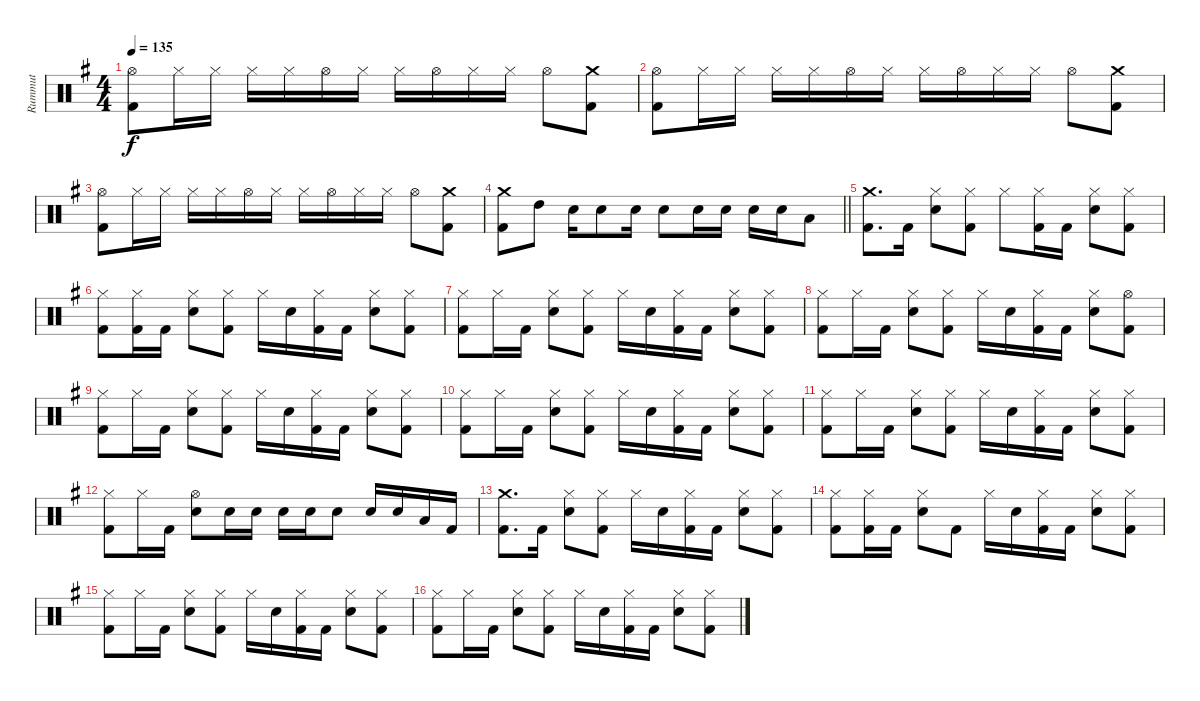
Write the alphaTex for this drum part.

\track ("Rummut" "Rummut") {instrument percussion}
\staff {score}
\articulation defaults
\ts (4 4)
\tempo 135
\clef neutral
\ks g
("Hi-Hat (open)" "Kick (hit) 2").8{dy f} "Hi-Hat (closed)".16 "Hi-Hat (closed)".16 "Hi-Hat (closed)".16 "Hi-Hat (closed)".16 "Hi-Hat (open)".16 "Hi-Hat (closed)".16 "Hi-Hat (closed)".16 "Hi-Hat (open)".16 "Hi-Hat (closed)".16 "Hi-Hat (closed)".16 "Hi-Hat (open)".8 ("Crash medium (hit)" "Kick (hit) 2").8 |
("Hi-Hat (open)" "Kick (hit) 2").8 "Hi-Hat (closed)".16 "Hi-Hat (closed)".16 "Hi-Hat (closed)".16 "Hi-Hat (closed)".16 "Hi-Hat (open)".16 "Hi-Hat (closed)".16 "Hi-Hat (closed)".16 "Hi-Hat (open)".16 "Hi-Hat (closed)".16 "Hi-Hat (closed)".16 "Hi-Hat (open)".8 ("Crash medium (hit)" "Kick (hit) 2").8 |
("Hi-Hat (open)" "Kick (hit) 2").8 "Hi-Hat (closed)".16 "Hi-Hat (closed)".16 "Hi-Hat (closed)".16 "Hi-Hat (closed)".16 "Hi-Hat (open)".16 "Hi-Hat (closed)".16 "Hi-Hat (closed)".16 "Hi-Hat (open)".16 "Hi-Hat (closed)".16 "Hi-Hat (closed)".16 "Hi-Hat (open)".8 ("Crash medium (hit)" "Kick (hit) 2").8 |
\barLineRight lightlight
("Crash medium (hit)" "Kick (hit) 2").8 "High Tom (hit)".8 "Snare (hit) 2".16 "Snare (hit) 2".8 "Snare (hit) 2".16 "Snare (hit) 2".8 "Snare (hit) 2".16 "Snare (hit) 2".16 "Snare (hit) 2".16 "Snare (hit) 2".16 "Low Tom (hit)".8 |
("Crash medium (hit)" "Kick (hit) 2").8{d} "Kick (hit) 2".16 ("Hi-Hat (closed)" "Snare (hit) 2").8 ("Hi-Hat (closed)" "Kick (hit) 2").8 "Hi-Hat (closed)".8 ("Hi-Hat (closed)" "Kick (hit) 2").16 "Kick (hit) 2".16 ("Hi-Hat (closed)" "Snare (hit) 2").8 ("Hi-Hat (closed)" "Kick (hit) 2").8 |
("Hi-Hat (closed)" "Kick (hit) 2").8 ("Hi-Hat (closed)" "Kick (hit) 2").16 "Kick (hit) 2".16 ("Hi-Hat (closed)" "Snare (hit) 2").8 ("Hi-Hat (closed)" "Kick (hit) 2").8 "Hi-Hat (closed)".16 "Snare (hit) 2".16 ("Hi-Hat (closed)" "Kick (hit) 2").16 "Kick (hit) 2".16 ("Hi-Hat (closed)" "Snare (hit) 2").8 ("Hi-Hat (closed)" "Kick (hit) 2").8 |
("Hi-Hat (closed)" "Kick (hit) 2").8 "Hi-Hat (closed)".16 "Kick (hit) 2".16 ("Hi-Hat (closed)" "Snare (hit) 2").8 ("Hi-Hat (closed)" "Kick (hit) 2").8 "Hi-Hat (closed)".16 "Snare (hit) 2".16 ("Hi-Hat (closed)" "Kick (hit) 2").16 "Kick (hit) 2".16 ("Hi-Hat (closed)" "Snare (hit) 2").8 ("Hi-Hat (closed)" "Kick (hit) 2").8 |
("Hi-Hat (closed)" "Kick (hit) 2").8 "Hi-Hat (closed)".16 "Kick (hit) 2".16 ("Hi-Hat (closed)" "Snare (hit) 2").8 ("Hi-Hat (closed)" "Kick (hit) 2").8 "Hi-Hat (closed)".16 "Snare (hit) 2".16 ("Hi-Hat (closed)" "Kick (hit) 2").16 "Kick (hit) 2".16 ("Hi-Hat (closed)" "Snare (hit) 2").8 ("Hi-Hat (open)" "Kick (hit) 2").8 |
("Hi-Hat (closed)" "Kick (hit) 2").8 "Hi-Hat (closed)".16 "Kick (hit) 2".16 ("Hi-Hat (closed)" "Snare (hit) 2").8 ("Hi-Hat (closed)" "Kick (hit) 2").8 "Hi-Hat (closed)".16 "Snare (hit) 2".16 ("Hi-Hat (closed)" "Kick (hit) 2").16 "Kick (hit) 2".16 ("Hi-Hat (closed)" "Snare (hit) 2").8 ("Hi-Hat (closed)" "Kick (hit) 2").8 |
("Hi-Hat (closed)" "Kick (hit) 2").8 "Hi-Hat (closed)".16 "Kick (hit) 2".16 ("Hi-Hat (closed)" "Snare (hit) 2").8 ("Hi-Hat (closed)" "Kick (hit) 2").8 "Hi-Hat (closed)".16 "Snare (hit) 2".16 ("Hi-Hat (closed)" "Kick (hit) 2").16 "Kick (hit) 2".16 ("Hi-Hat (closed)" "Snare (hit) 2").8 ("Hi-Hat (closed)" "Kick (hit) 2").8 |
("Hi-Hat (closed)" "Kick (hit) 2").8 "Hi-Hat (closed)".16 "Kick (hit) 2".16 ("Hi-Hat (closed)" "Snare (hit) 2").8 ("Hi-Hat (closed)" "Kick (hit) 2").8 "Hi-Hat (closed)".16 "Snare (hit) 2".16 ("Hi-Hat (closed)" "Kick (hit) 2").16 "Kick (hit) 2".16 ("Hi-Hat (closed)" "Snare (hit) 2").8 ("Hi-Hat (closed)" "Kick (hit) 2").8 |
("Hi-Hat (closed)" "Kick (hit) 2").8 "Hi-Hat (closed)".16 "Kick (hit) 2".16 ("Hi-Hat (open)" "Snare (hit) 2").8 "Snare (hit) 2".16 "Snare (hit) 2".16 "Snare (hit) 2".16 "Snare (hit) 2".16 "Snare (hit) 2".8 "Snare (hit) 2".16 "Snare (hit) 2".16 "Low Tom (hit)".16 "Kick (hit) 2".16 |
("Crash medium (hit)" "Kick (hit) 2").8{d} "Kick (hit) 2".16 ("Hi-Hat (closed)" "Snare (hit) 2").8 ("Hi-Hat (closed)" "Kick (hit) 2").8 "Hi-Hat (closed)".16 "Snare (hit) 2".16 ("Hi-Hat (closed)" "Kick (hit) 2").16 "Kick (hit) 2".16 ("Hi-Hat (closed)" "Snare (hit) 2").8 ("Hi-Hat (closed)" "Kick (hit) 2").8 |
("Hi-Hat (closed)" "Kick (hit) 2").8 ("Hi-Hat (closed)" "Kick (hit) 2").16 "Kick (hit) 2".16 ("Hi-Hat (closed)" "Snare (hit) 2").8 "Kick (hit) 2".8 "Hi-Hat (closed)".16 "Snare (hit) 2".16 ("Hi-Hat (closed)" "Kick (hit) 2").16 "Kick (hit) 2".16 ("Hi-Hat (closed)" "Snare (hit) 2").8 ("Hi-Hat (closed)" "Kick (hit) 2").8 |
("Hi-Hat (closed)" "Kick (hit) 2").8 "Hi-Hat (closed)".16 "Kick (hit) 2".16 ("Hi-Hat (closed)" "Snare (hit) 2").8 ("Hi-Hat (closed)" "Kick (hit) 2").8 "Hi-Hat (closed)".16 "Snare (hit) 2".16 ("Hi-Hat (closed)" "Kick (hit) 2").16 "Kick (hit) 2".16 ("Hi-Hat (closed)" "Snare (hit) 2").8 ("Hi-Hat (closed)" "Kick (hit) 2").8 |
("Hi-Hat (closed)" "Kick (hit) 2").8 "Hi-Hat (closed)".16 "Kick (hit) 2".16 ("Hi-Hat (closed)" "Snare (hit) 2").8 ("Hi-Hat (closed)" "Kick (hit) 2").8 "Hi-Hat (closed)".16 "Snare (hit) 2".16 ("Hi-Hat (closed)" "Kick (hit) 2").16 "Kick (hit) 2".16 ("Hi-Hat (closed)" "Snare (hit) 2").8 ("Hi-Hat (closed)" "Kick (hit) 2").8
